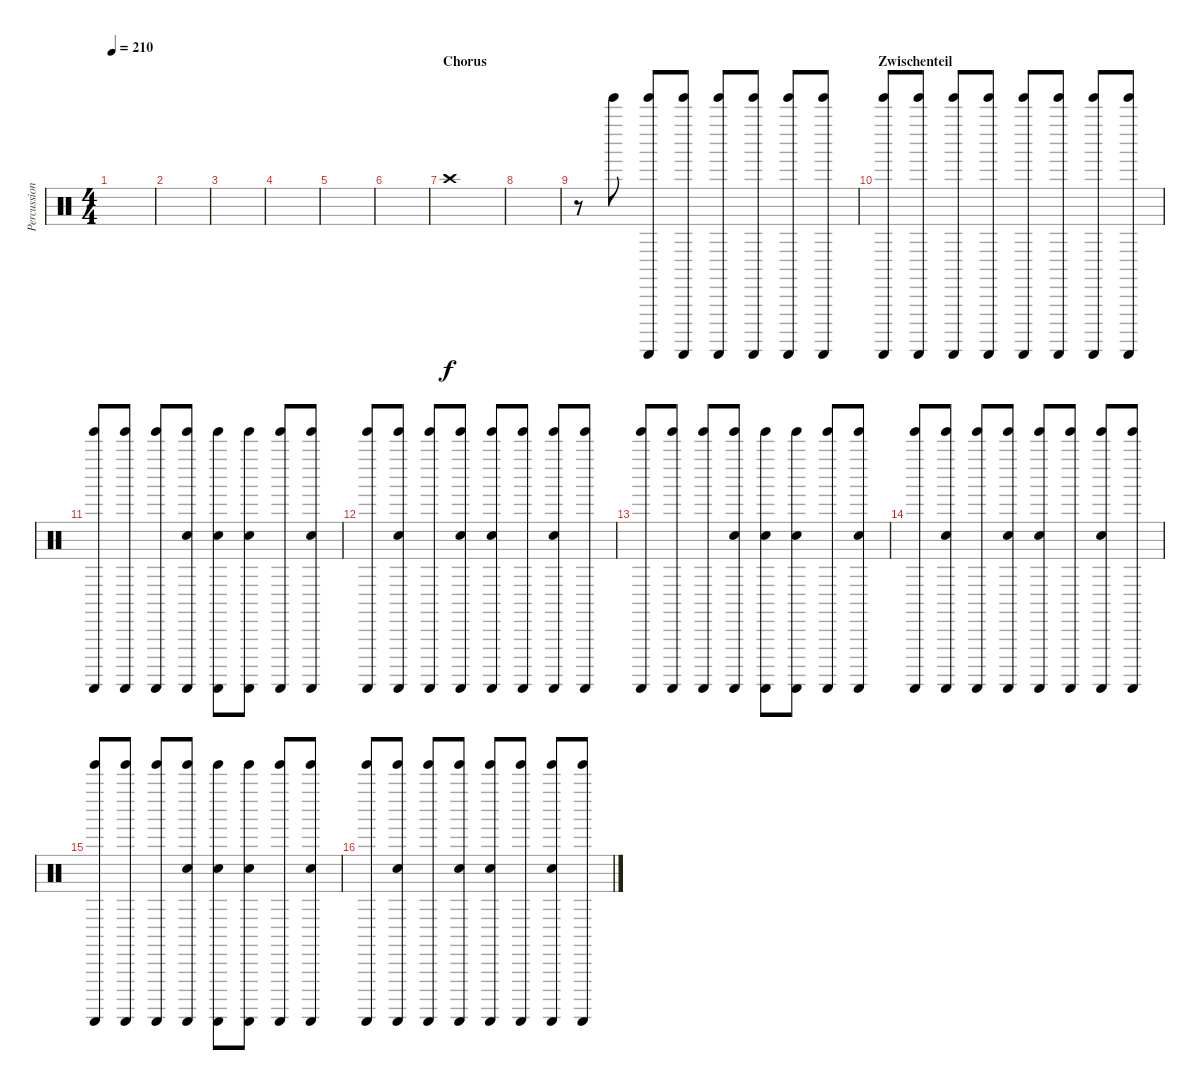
\track ("Percussion" "Percussion") {instrument percussion}
\staff {score}
\articulation defaults
\ts (4 4)
\tempo 210
\clef neutral
\ks c
|
|
|
|
|
|
\section ("" "Chorus")
"Crash high (hit)".1 |
|
r.8 "Tinkle Bell (hit)".8 ("Tinkle Bell (hit)" "Guiro (scrap-return)").8 ("Tinkle Bell (hit)" "Guiro (scrap-return)").8 ("Tinkle Bell (hit)" "Guiro (scrap-return)").8 ("Tinkle Bell (hit)" "Guiro (scrap-return)").8 ("Tinkle Bell (hit)" "Guiro (scrap-return)").8 ("Tinkle Bell (hit)" "Guiro (scrap-return)").8 |
\section ("" "Zwischenteil")
("Tinkle Bell (hit)" "Guiro (scrap-return)").8 ("Tinkle Bell (hit)" "Guiro (scrap-return)").8 ("Tinkle Bell (hit)" "Guiro (scrap-return)").8 ("Tinkle Bell (hit)" "Guiro (scrap-return)").8 ("Tinkle Bell (hit)" "Guiro (scrap-return)").8 ("Tinkle Bell (hit)" "Guiro (scrap-return)").8 ("Tinkle Bell (hit)" "Guiro (scrap-return)").8 ("Tinkle Bell (hit)" "Guiro (scrap-return)").8 |
("Tinkle Bell (hit)" "Guiro (scrap-return)").8 ("Tinkle Bell (hit)" "Guiro (scrap-return)").8 ("Tinkle Bell (hit)" "Guiro (scrap-return)").8 ("Tinkle Bell (hit)" "Guiro (scrap-return)" "Hand Clap (hit)").8 ("Tinkle Bell (hit)" "Guiro (scrap-return)" "Hand Clap (hit)").8 ("Tinkle Bell (hit)" "Guiro (scrap-return)" "Hand Clap (hit)").8 ("Tinkle Bell (hit)" "Guiro (scrap-return)").8 ("Tinkle Bell (hit)" "Guiro (scrap-return)" "Hand Clap (hit)").8 |
("Tinkle Bell (hit)" "Guiro (scrap-return)").8 ("Tinkle Bell (hit)" "Guiro (scrap-return)" "Hand Clap (hit)").8 ("Tinkle Bell (hit)" "Guiro (scrap-return)").8 ("Tinkle Bell (hit)" "Guiro (scrap-return)" "Hand Clap (hit)").8 ("Tinkle Bell (hit)" "Guiro (scrap-return)" "Hand Clap (hit)").8 ("Tinkle Bell (hit)" "Guiro (scrap-return)").8 ("Tinkle Bell (hit)" "Guiro (scrap-return)" "Hand Clap (hit)").8 ("Tinkle Bell (hit)" "Guiro (scrap-return)").8 |
("Tinkle Bell (hit)" "Guiro (scrap-return)").8 ("Tinkle Bell (hit)" "Guiro (scrap-return)").8 ("Tinkle Bell (hit)" "Guiro (scrap-return)").8 ("Tinkle Bell (hit)" "Guiro (scrap-return)" "Hand Clap (hit)").8 ("Tinkle Bell (hit)" "Guiro (scrap-return)" "Hand Clap (hit)").8 ("Tinkle Bell (hit)" "Guiro (scrap-return)" "Hand Clap (hit)").8 ("Tinkle Bell (hit)" "Guiro (scrap-return)").8 ("Tinkle Bell (hit)" "Guiro (scrap-return)" "Hand Clap (hit)").8 |
("Tinkle Bell (hit)" "Guiro (scrap-return)").8 ("Tinkle Bell (hit)" "Guiro (scrap-return)" "Hand Clap (hit)").8 ("Tinkle Bell (hit)" "Guiro (scrap-return)").8 ("Tinkle Bell (hit)" "Guiro (scrap-return)" "Hand Clap (hit)").8 ("Tinkle Bell (hit)" "Guiro (scrap-return)" "Hand Clap (hit)").8 ("Tinkle Bell (hit)" "Guiro (scrap-return)").8 ("Tinkle Bell (hit)" "Guiro (scrap-return)" "Hand Clap (hit)").8 ("Tinkle Bell (hit)" "Guiro (scrap-return)").8 |
("Tinkle Bell (hit)" "Guiro (scrap-return)").8 ("Tinkle Bell (hit)" "Guiro (scrap-return)").8 ("Tinkle Bell (hit)" "Guiro (scrap-return)").8 ("Tinkle Bell (hit)" "Guiro (scrap-return)" "Hand Clap (hit)").8 ("Tinkle Bell (hit)" "Guiro (scrap-return)" "Hand Clap (hit)").8 ("Tinkle Bell (hit)" "Guiro (scrap-return)" "Hand Clap (hit)").8 ("Tinkle Bell (hit)" "Guiro (scrap-return)").8 ("Tinkle Bell (hit)" "Guiro (scrap-return)" "Hand Clap (hit)").8 |
("Tinkle Bell (hit)" "Guiro (scrap-return)").8 ("Tinkle Bell (hit)" "Guiro (scrap-return)" "Hand Clap (hit)").8 ("Tinkle Bell (hit)" "Guiro (scrap-return)").8 ("Tinkle Bell (hit)" "Guiro (scrap-return)" "Hand Clap (hit)").8 ("Tinkle Bell (hit)" "Guiro (scrap-return)" "Hand Clap (hit)").8 ("Tinkle Bell (hit)" "Guiro (scrap-return)").8 ("Tinkle Bell (hit)" "Guiro (scrap-return)" "Hand Clap (hit)").8 ("Tinkle Bell (hit)" "Guiro (scrap-return)").8
